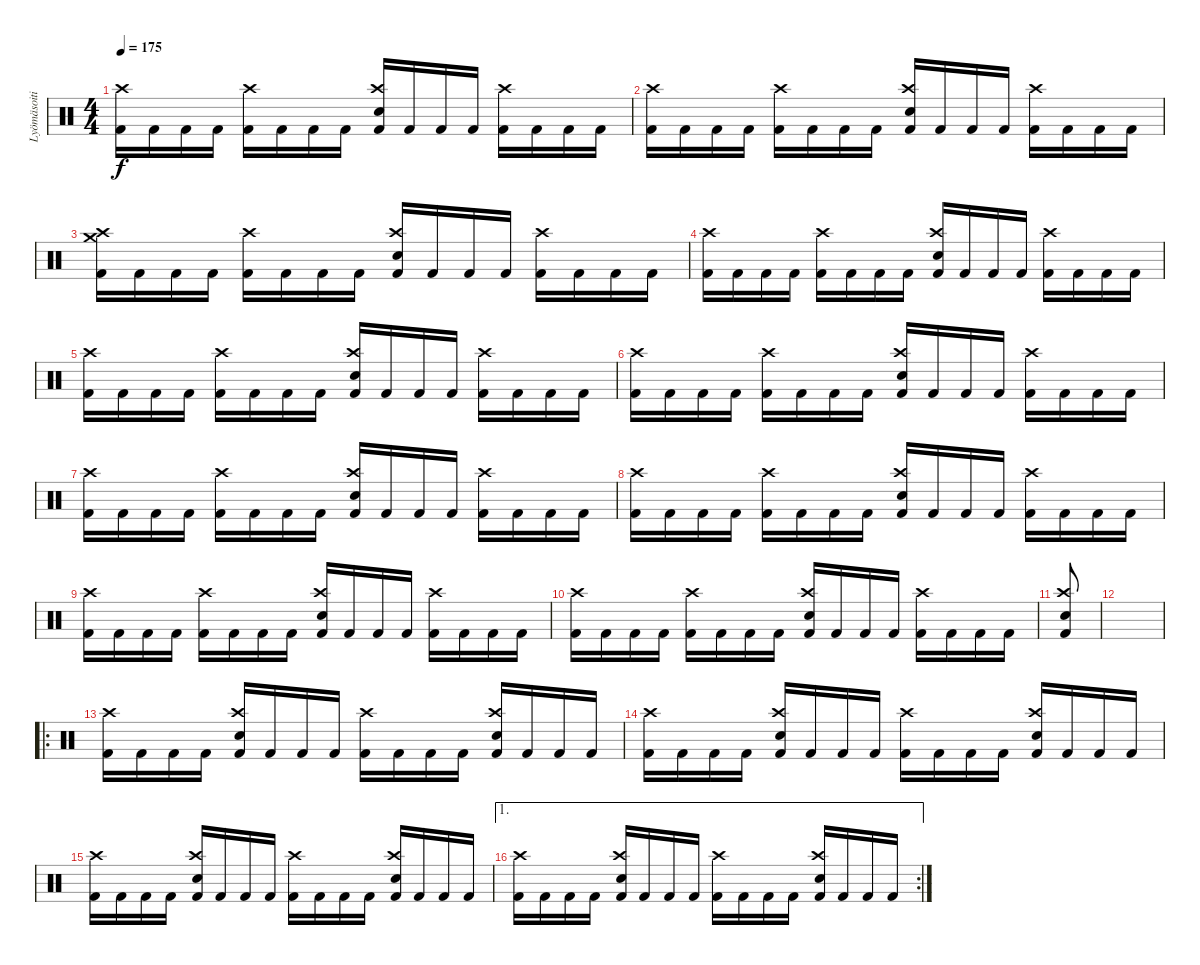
\track ("Lyömäsoitin" "Lyömäsoiti") {instrument percussion}
\staff {score}
\articulation defaults
\ts (4 4)
\tempo 175
\clef neutral
\ks c
("Kick (hit) 2" "Crash high (hit)").16{dy f} "Kick (hit) 2".16 "Kick (hit) 2".16 "Kick (hit) 2".16 ("Kick (hit) 2" "Crash high (hit)").16 "Kick (hit) 2".16 "Kick (hit) 2".16 "Kick (hit) 2".16 ("Kick (hit) 2" "Electric Snare (hit)" "Crash high (hit)").16 "Kick (hit) 2".16 "Kick (hit) 2".16 "Kick (hit) 2".16 ("Kick (hit) 2" "Crash high (hit)").16 "Kick (hit) 2".16 "Kick (hit) 2".16 "Kick (hit) 2".16 |
("Kick (hit) 2" "Crash high (hit)").16 "Kick (hit) 2".16 "Kick (hit) 2".16 "Kick (hit) 2".16 ("Kick (hit) 2" "Crash high (hit)").16 "Kick (hit) 2".16 "Kick (hit) 2".16 "Kick (hit) 2".16 ("Kick (hit) 2" "Electric Snare (hit)" "Crash high (hit)").16 "Kick (hit) 2".16 "Kick (hit) 2".16 "Kick (hit) 2".16 ("Kick (hit) 2" "Crash high (hit)").16 "Kick (hit) 2".16 "Kick (hit) 2".16 "Kick (hit) 2".16 |
("Kick (hit) 2" "Crash medium (hit)" "Crash high (hit)").16 "Kick (hit) 2".16 "Kick (hit) 2".16 "Kick (hit) 2".16 ("Kick (hit) 2" "Crash high (hit)").16 "Kick (hit) 2".16 "Kick (hit) 2".16 "Kick (hit) 2".16 ("Kick (hit) 2" "Electric Snare (hit)" "Crash high (hit)").16 "Kick (hit) 2".16 "Kick (hit) 2".16 "Kick (hit) 2".16 ("Kick (hit) 2" "Crash high (hit)").16 "Kick (hit) 2".16 "Kick (hit) 2".16 "Kick (hit) 2".16 |
("Kick (hit) 2" "Crash high (hit)").16 "Kick (hit) 2".16 "Kick (hit) 2".16 "Kick (hit) 2".16 ("Kick (hit) 2" "Crash high (hit)").16 "Kick (hit) 2".16 "Kick (hit) 2".16 "Kick (hit) 2".16 ("Kick (hit) 2" "Electric Snare (hit)" "Crash high (hit)").16 "Kick (hit) 2".16 "Kick (hit) 2".16 "Kick (hit) 2".16 ("Kick (hit) 2" "Crash high (hit)").16 "Kick (hit) 2".16 "Kick (hit) 2".16 "Kick (hit) 2".16 |
("Kick (hit) 2" "Crash high (hit)").16 "Kick (hit) 2".16 "Kick (hit) 2".16 "Kick (hit) 2".16 ("Kick (hit) 2" "Crash high (hit)").16 "Kick (hit) 2".16 "Kick (hit) 2".16 "Kick (hit) 2".16 ("Kick (hit) 2" "Electric Snare (hit)" "Crash high (hit)").16 "Kick (hit) 2".16 "Kick (hit) 2".16 "Kick (hit) 2".16 ("Kick (hit) 2" "Crash high (hit)").16 "Kick (hit) 2".16 "Kick (hit) 2".16 "Kick (hit) 2".16 |
("Kick (hit) 2" "Crash high (hit)").16 "Kick (hit) 2".16 "Kick (hit) 2".16 "Kick (hit) 2".16 ("Kick (hit) 2" "Crash high (hit)").16 "Kick (hit) 2".16 "Kick (hit) 2".16 "Kick (hit) 2".16 ("Kick (hit) 2" "Electric Snare (hit)" "Crash high (hit)").16 "Kick (hit) 2".16 "Kick (hit) 2".16 "Kick (hit) 2".16 ("Kick (hit) 2" "Crash high (hit)").16 "Kick (hit) 2".16 "Kick (hit) 2".16 "Kick (hit) 2".16 |
("Kick (hit) 2" "Crash high (hit)").16 "Kick (hit) 2".16 "Kick (hit) 2".16 "Kick (hit) 2".16 ("Kick (hit) 2" "Crash high (hit)").16 "Kick (hit) 2".16 "Kick (hit) 2".16 "Kick (hit) 2".16 ("Kick (hit) 2" "Electric Snare (hit)" "Crash high (hit)").16 "Kick (hit) 2".16 "Kick (hit) 2".16 "Kick (hit) 2".16 ("Kick (hit) 2" "Crash high (hit)").16 "Kick (hit) 2".16 "Kick (hit) 2".16 "Kick (hit) 2".16 |
("Kick (hit) 2" "Crash high (hit)").16 "Kick (hit) 2".16 "Kick (hit) 2".16 "Kick (hit) 2".16 ("Kick (hit) 2" "Crash high (hit)").16 "Kick (hit) 2".16 "Kick (hit) 2".16 "Kick (hit) 2".16 ("Kick (hit) 2" "Electric Snare (hit)" "Crash high (hit)").16 "Kick (hit) 2".16 "Kick (hit) 2".16 "Kick (hit) 2".16 ("Kick (hit) 2" "Crash high (hit)").16 "Kick (hit) 2".16 "Kick (hit) 2".16 "Kick (hit) 2".16 |
("Kick (hit) 2" "Crash high (hit)").16 "Kick (hit) 2".16 "Kick (hit) 2".16 "Kick (hit) 2".16 ("Kick (hit) 2" "Crash high (hit)").16 "Kick (hit) 2".16 "Kick (hit) 2".16 "Kick (hit) 2".16 ("Kick (hit) 2" "Electric Snare (hit)" "Crash high (hit)").16 "Kick (hit) 2".16 "Kick (hit) 2".16 "Kick (hit) 2".16 ("Kick (hit) 2" "Crash high (hit)").16 "Kick (hit) 2".16 "Kick (hit) 2".16 "Kick (hit) 2".16 |
("Kick (hit) 2" "Crash high (hit)").16 "Kick (hit) 2".16 "Kick (hit) 2".16 "Kick (hit) 2".16 ("Kick (hit) 2" "Crash high (hit)").16 "Kick (hit) 2".16 "Kick (hit) 2".16 "Kick (hit) 2".16 ("Kick (hit) 2" "Electric Snare (hit)" "Crash high (hit)").16 "Kick (hit) 2".16 "Kick (hit) 2".16 "Kick (hit) 2".16 ("Kick (hit) 2" "Crash high (hit)").16 "Kick (hit) 2".16 "Kick (hit) 2".16 "Kick (hit) 2".16 |
("Kick (hit) 2" "Electric Snare (hit)" "Crash high (hit)").8 |
|
\ro
("Kick (hit) 2" "Crash high (hit)").16 "Kick (hit) 2".16 "Kick (hit) 2".16 "Kick (hit) 2".16 ("Kick (hit) 2" "Electric Snare (hit)" "Crash high (hit)").16 "Kick (hit) 2".16 "Kick (hit) 2".16 "Kick (hit) 2".16 ("Kick (hit) 2" "Crash high (hit)").16 "Kick (hit) 2".16 "Kick (hit) 2".16 "Kick (hit) 2".16 ("Kick (hit) 2" "Electric Snare (hit)" "Crash high (hit)").16 "Kick (hit) 2".16 "Kick (hit) 2".16 "Kick (hit) 2".16 |
("Kick (hit) 2" "Crash high (hit)").16 "Kick (hit) 2".16 "Kick (hit) 2".16 "Kick (hit) 2".16 ("Kick (hit) 2" "Electric Snare (hit)" "Crash high (hit)").16 "Kick (hit) 2".16 "Kick (hit) 2".16 "Kick (hit) 2".16 ("Kick (hit) 2" "Crash high (hit)").16 "Kick (hit) 2".16 "Kick (hit) 2".16 "Kick (hit) 2".16 ("Kick (hit) 2" "Electric Snare (hit)" "Crash high (hit)").16 "Kick (hit) 2".16 "Kick (hit) 2".16 "Kick (hit) 2".16 |
("Kick (hit) 2" "Crash high (hit)").16 "Kick (hit) 2".16 "Kick (hit) 2".16 "Kick (hit) 2".16 ("Kick (hit) 2" "Electric Snare (hit)" "Crash high (hit)").16 "Kick (hit) 2".16 "Kick (hit) 2".16 "Kick (hit) 2".16 ("Kick (hit) 2" "Crash high (hit)").16 "Kick (hit) 2".16 "Kick (hit) 2".16 "Kick (hit) 2".16 ("Kick (hit) 2" "Electric Snare (hit)" "Crash high (hit)").16 "Kick (hit) 2".16 "Kick (hit) 2".16 "Kick (hit) 2".16 |
\ae 1
\rc 2
("Kick (hit) 2" "Crash high (hit)").16 "Kick (hit) 2".16 "Kick (hit) 2".16 "Kick (hit) 2".16 ("Kick (hit) 2" "Electric Snare (hit)" "Crash high (hit)").16 "Kick (hit) 2".16 "Kick (hit) 2".16 "Kick (hit) 2".16 ("Kick (hit) 2" "Crash high (hit)").16 "Kick (hit) 2".16 "Kick (hit) 2".16 "Kick (hit) 2".16 ("Kick (hit) 2" "Electric Snare (hit)" "Crash high (hit)").16 "Kick (hit) 2".16 "Kick (hit) 2".16 "Kick (hit) 2".16
